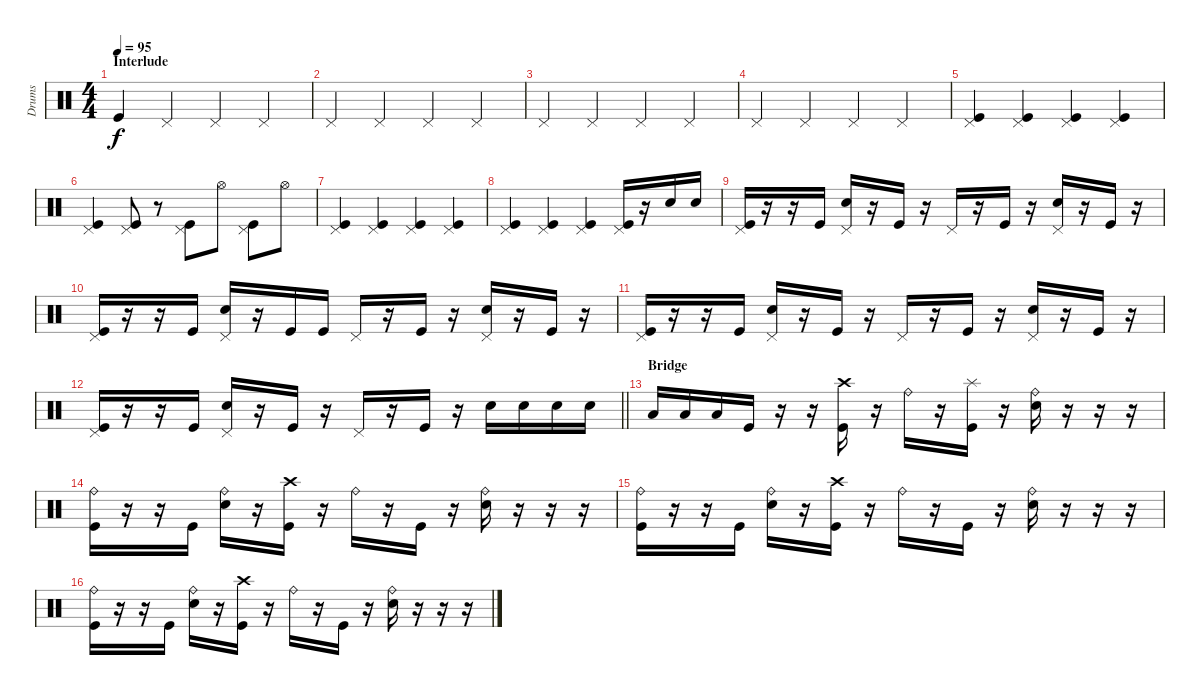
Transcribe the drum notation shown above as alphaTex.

\track ("Drums" "Drums") {instrument percussion}
\staff {score}
\articulation defaults
\ts (4 4)
\section ("" "Interlude")
\tempo 95
\clef neutral
\ks c "Kick (hit)".4{dy f} "Pedal Hi-Hat (hit)".4 "Pedal Hi-Hat (hit)".4 "Pedal Hi-Hat (hit)".4
|
"Pedal Hi-Hat (hit)".4 "Pedal Hi-Hat (hit)".4 "Pedal Hi-Hat (hit)".4 "Pedal Hi-Hat (hit)".4 |
"Pedal Hi-Hat (hit)".4 "Pedal Hi-Hat (hit)".4 "Pedal Hi-Hat (hit)".4 "Pedal Hi-Hat (hit)".4 |
"Pedal Hi-Hat (hit)".4 "Pedal Hi-Hat (hit)".4 "Pedal Hi-Hat (hit)".4 "Pedal Hi-Hat (hit)".4 |
("Pedal Hi-Hat (hit)" "Kick (hit)").4 ("Pedal Hi-Hat (hit)" "Kick (hit)").4 ("Pedal Hi-Hat (hit)" "Kick (hit)").4 ("Pedal Hi-Hat (hit)" "Kick (hit)").4 |
("Pedal Hi-Hat (hit)" "Kick (hit)").4 ("Pedal Hi-Hat (hit)" "Kick (hit)").8 r.8 ("Pedal Hi-Hat (hit)" "Kick (hit)").8 "Hi-Hat (open)".8 ("Pedal Hi-Hat (hit)" "Kick (hit)").8 "Hi-Hat (open)".8 |
("Pedal Hi-Hat (hit)" "Kick (hit)").4 ("Pedal Hi-Hat (hit)" "Kick (hit)").4 ("Pedal Hi-Hat (hit)" "Kick (hit)").4 ("Pedal Hi-Hat (hit)" "Kick (hit)").4 |
("Pedal Hi-Hat (hit)" "Kick (hit)").4 ("Pedal Hi-Hat (hit)" "Kick (hit)").4 ("Pedal Hi-Hat (hit)" "Kick (hit)").4 ("Pedal Hi-Hat (hit)" "Kick (hit)").16 r.16 "Electric Snare (hit)".16 "Electric Snare (hit)".16 |
("Pedal Hi-Hat (hit)" "Kick (hit)").16 r.16 r.16 "Kick (hit)".16 ("Pedal Hi-Hat (hit)" "Electric Snare (hit)").16 r.16 "Kick (hit)".16 r.16 "Pedal Hi-Hat (hit)".16 r.16 "Kick (hit)".16 r.16 ("Pedal Hi-Hat (hit)" "Electric Snare (hit)").16 r.16 "Kick (hit)".16 r.16 |
("Pedal Hi-Hat (hit)" "Kick (hit)").16 r.16 r.16 "Kick (hit)".16 ("Pedal Hi-Hat (hit)" "Electric Snare (hit)").16 r.16 "Kick (hit)".16 "Kick (hit)".16 "Pedal Hi-Hat (hit)".16 r.16 "Kick (hit)".16 r.16 ("Pedal Hi-Hat (hit)" "Electric Snare (hit)").16 r.16 "Kick (hit)".16 r.16 |
("Pedal Hi-Hat (hit)" "Kick (hit)").16 r.16 r.16 "Kick (hit)".16 ("Pedal Hi-Hat (hit)" "Electric Snare (hit)").16 r.16 "Kick (hit)".16 r.16 "Pedal Hi-Hat (hit)".16 r.16 "Kick (hit)".16 r.16 ("Pedal Hi-Hat (hit)" "Electric Snare (hit)").16 r.16 "Kick (hit)".16 r.16 |
\barLineRight lightlight
("Pedal Hi-Hat (hit)" "Kick (hit)").16 r.16 r.16 "Kick (hit)".16 ("Pedal Hi-Hat (hit)" "Electric Snare (hit)").16 r.16 "Kick (hit)".16 r.16 "Pedal Hi-Hat (hit)".16 r.16 "Kick (hit)".16 r.16 "Electric Snare (hit)".16 "Electric Snare (hit)".16 "Electric Snare (hit)".16 "Electric Snare (hit)".16 |
\section ("" "Bridge")
"Low Tom (hit)".16 "Low Tom (hit)".16 "Low Tom (hit)".16 "Kick (hit)".16 r.16 r.16 ("Crash high (hit)" "Kick (hit)").16 r.16 "Ride (bell)".16 r.16 ("Splash (hit)" "Kick (hit)").16 r.16 ("Ride (bell)" "Electric Snare (hit)").16 r.16 r.16 r.16 |
("Ride (bell)" "Kick (hit)").16 r.16 r.16 "Kick (hit)".16 ("Ride (bell)" "Electric Snare (hit)").16 r.16 ("Crash high (hit)" "Kick (hit)").16 r.16 "Ride (bell)".16 r.16 "Kick (hit)".16 r.16 ("Ride (bell)" "Electric Snare (hit)").16 r.16 r.16 r.16 |
("Ride (bell)" "Kick (hit)").16 r.16 r.16 "Kick (hit)".16 ("Ride (bell)" "Electric Snare (hit)").16 r.16 ("Crash high (hit)" "Kick (hit)").16 r.16 "Ride (bell)".16 r.16 "Kick (hit)".16 r.16 ("Ride (bell)" "Electric Snare (hit)").16 r.16 r.16 r.16 |
("Ride (bell)" "Kick (hit)").16 r.16 r.16 "Kick (hit)".16 ("Ride (bell)" "Electric Snare (hit)").16 r.16 ("Crash high (hit)" "Kick (hit)").16 r.16 "Ride (bell)".16 r.16 "Kick (hit)".16 r.16 ("Ride (bell)" "Electric Snare (hit)").16 r.16 r.16 r.16
